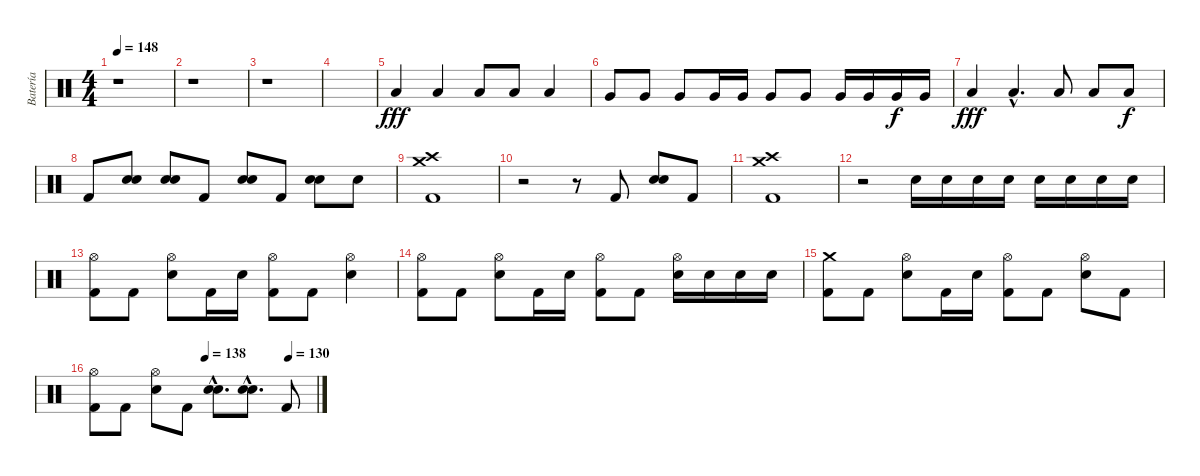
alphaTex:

\track ("Batería" "Batería") {instrument percussion}
\staff {score}
\articulation defaults
\ts (4 4)
\tempo 148
\clef neutral
\ks c
r.1{dy fff} |
r.1 |
r.1 |
|
"Low Tom (hit)".4 "Low Tom (hit)".4 "Low Tom (hit)".8 "Low Tom (hit)".8 "Low Tom (hit)".4 |
"Very Low Tom (hit)".8 "Very Low Tom (hit)".8 "Very Low Tom (hit)".8 "Very Low Tom (hit)".16 "Very Low Tom (hit)".16 "Very Low Tom (hit)".8 "Very Low Tom (hit)".8 "Very Low Tom (hit)".16 "Very Low Tom (hit)".16 "Very Low Tom (hit)".16{dy f} "Very Low Tom (hit)".16 |
"Low Tom (hit)".4{dy fff} "Low Tom (hit)"{hac}.4{d} "Low Tom (hit)".8 "Low Tom (hit)".8 "Low Tom (hit)".8{dy f} |
"Kick (hit) 2".8 ("Snare (hit) 2" "Snare (hit) 2").8{bd 240} ("Snare (hit) 2" "Snare (hit) 2").8{bd 240} "Kick (hit) 2".8 ("Snare (hit) 2" "Snare (hit) 2").8{bd 240} "Kick (hit) 2".8 ("Snare (hit) 2" "Snare (hit) 2").8{bd 240} "Snare (hit) 2".8 |
("Crash high (hit)" "Crash medium (hit)" "Kick (hit) 2").1 |
r.2 r.8 "Kick (hit) 2".8 ("Snare (hit) 2" "Snare (hit) 2").8{bd 240} "Kick (hit) 2".8 |
("Crash high (hit)" "Crash medium (hit)" "Kick (hit) 2").1 |
r.2 "Snare (hit) 2".16 "Snare (hit) 2".16 "Snare (hit) 2".16 "Snare (hit) 2".16 "Snare (hit) 2".16 "Snare (hit) 2".16 "Snare (hit) 2".16 "Snare (hit) 2".16 |
("Hi-Hat (open)" "Kick (hit) 2").8 "Kick (hit) 2".8 ("Hi-Hat (open)" "Snare (hit) 2").8 "Kick (hit) 2".16 "Snare (hit) 2".16 ("Hi-Hat (open)" "Kick (hit) 2").8 "Kick (hit) 2".8 ("Hi-Hat (open)" "Snare (hit) 2").4 |
("Hi-Hat (open)" "Kick (hit) 2").8 "Kick (hit) 2".8 ("Hi-Hat (open)" "Snare (hit) 2").8 "Kick (hit) 2".16 "Snare (hit) 2".16 ("Hi-Hat (open)" "Kick (hit) 2").8 "Kick (hit) 2".8 ("Hi-Hat (open)" "Snare (hit) 2").16 "Snare (hit) 2".16 "Snare (hit) 2".16 "Snare (hit) 2".16 |
("Crash medium (hit)" "Kick (hit) 2").8 "Kick (hit) 2".8 ("Hi-Hat (open)" "Snare (hit) 2").8 "Kick (hit) 2".16 "Snare (hit) 2".16 ("Hi-Hat (open)" "Kick (hit) 2").8 "Kick (hit) 2".8 ("Hi-Hat (open)" "Snare (hit) 2").8 "Kick (hit) 2".8 |
\tempo (138 0.5)
\tempo (130 0.875)
("Hi-Hat (open)" "Kick (hit) 2").8 "Kick (hit) 2".8 ("Hi-Hat (open)" "Snare (hit) 2").8 "Kick (hit) 2".8 ("Snare (hit) 2"{hac} "Snare (hit) 2"{hac}).8{d bd 240} ("Snare (hit) 2"{hac} "Snare (hit) 2"{hac}).8{d bd 240} "Kick (hit) 2".8
